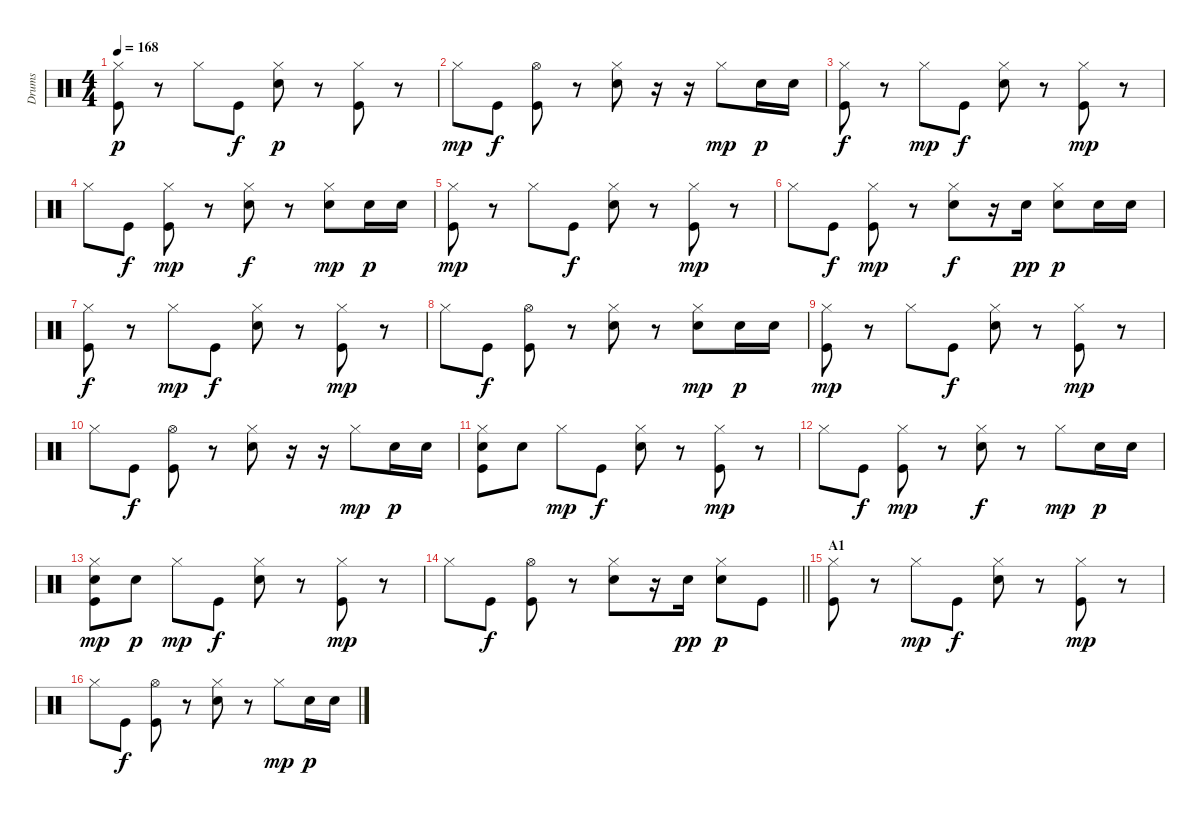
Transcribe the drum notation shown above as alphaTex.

\track ("Drums" "Drums") {instrument percussion}
\staff {score}
\articulation defaults
\ts (4 4)
\tempo 168
\clef neutral
\ks c
("Hi-Hat (closed)" "Kick (hit)").8{dy p} r.8 "Hi-Hat (closed)".8 "Kick (hit)".8{dy f} ("Hi-Hat (closed)" "Electric Snare (hit)").8{dy p} r.8 ("Hi-Hat (closed)" "Kick (hit)").8 r.8 |
"Hi-Hat (closed)".8{dy mp} "Kick (hit)".8{dy f} ("Hi-Hat (open)" "Kick (hit)").8 r.8 ("Hi-Hat (closed)" "Electric Snare (hit)").8 r.16 r.16 "Hi-Hat (closed)".8{dy mp} "Electric Snare (hit)".16{dy p} "Electric Snare (hit)".16 |
("Hi-Hat (closed)" "Kick (hit)").8{dy f} r.8 "Hi-Hat (closed)".8{dy mp} "Kick (hit)".8{dy f} ("Hi-Hat (closed)" "Electric Snare (hit)").8 r.8 ("Hi-Hat (closed)" "Kick (hit)").8{dy mp} r.8 |
"Hi-Hat (closed)".8 "Kick (hit)".8{dy f} ("Hi-Hat (closed)" "Kick (hit)").8{dy mp} r.8 ("Hi-Hat (closed)" "Electric Snare (hit)").8{dy f} r.8 ("Hi-Hat (closed)" "Electric Snare (hit)").8{dy mp} "Electric Snare (hit)".16{dy p} "Electric Snare (hit)".16 |
("Hi-Hat (closed)" "Kick (hit)").8{dy mp} r.8 "Hi-Hat (closed)".8 "Kick (hit)".8{dy f} ("Hi-Hat (closed)" "Electric Snare (hit)").8 r.8 ("Hi-Hat (closed)" "Kick (hit)").8{dy mp} r.8 |
"Hi-Hat (closed)".8 "Kick (hit)".8{dy f} ("Hi-Hat (closed)" "Kick (hit)").8{dy mp} r.8 ("Hi-Hat (closed)" "Electric Snare (hit)").8{dy f} r.16 "Electric Snare (hit)".16{dy pp} ("Hi-Hat (closed)" "Electric Snare (hit)").8{dy p} "Electric Snare (hit)".16 "Electric Snare (hit)".16 |
("Hi-Hat (closed)" "Kick (hit)").8{dy f} r.8 "Hi-Hat (closed)".8{dy mp} "Kick (hit)".8{dy f} ("Hi-Hat (closed)" "Electric Snare (hit)").8 r.8 ("Hi-Hat (closed)" "Kick (hit)").8{dy mp} r.8 |
"Hi-Hat (closed)".8 "Kick (hit)".8{dy f} ("Hi-Hat (open)" "Kick (hit)").8 r.8 ("Hi-Hat (closed)" "Electric Snare (hit)").8 r.8 ("Hi-Hat (closed)" "Electric Snare (hit)").8{dy mp} "Electric Snare (hit)".16{dy p} "Electric Snare (hit)".16 |
("Hi-Hat (closed)" "Kick (hit)").8{dy mp} r.8 "Hi-Hat (closed)".8 "Kick (hit)".8{dy f} ("Hi-Hat (closed)" "Electric Snare (hit)").8 r.8 ("Hi-Hat (closed)" "Kick (hit)").8{dy mp} r.8 |
"Hi-Hat (closed)".8 "Kick (hit)".8{dy f} ("Hi-Hat (open)" "Kick (hit)").8 r.8 ("Hi-Hat (closed)" "Electric Snare (hit)").8 r.16 r.16 "Hi-Hat (closed)".8{dy mp} "Electric Snare (hit)".16{dy p} "Electric Snare (hit)".16 |
("Electric Snare (hit)" "Hi-Hat (closed)" "Kick (hit)").8 "Electric Snare (hit)".8 "Hi-Hat (closed)".8{dy mp} "Kick (hit)".8{dy f} ("Hi-Hat (closed)" "Electric Snare (hit)").8 r.8 ("Hi-Hat (closed)" "Kick (hit)").8{dy mp} r.8 |
"Hi-Hat (closed)".8 "Kick (hit)".8{dy f} ("Hi-Hat (closed)" "Kick (hit)").8{dy mp} r.8 ("Hi-Hat (closed)" "Electric Snare (hit)").8{dy f} r.8 "Hi-Hat (closed)".8{dy mp} "Electric Snare (hit)".16{dy p} "Electric Snare (hit)".16 |
("Electric Snare (hit)" "Hi-Hat (closed)" "Kick (hit)").8{dy mp} "Electric Snare (hit)".8{dy p} "Hi-Hat (closed)".8{dy mp} "Kick (hit)".8{dy f} ("Hi-Hat (closed)" "Electric Snare (hit)").8 r.8 ("Hi-Hat (closed)" "Kick (hit)").8{dy mp} r.8 |
\barLineRight lightlight "Hi-Hat (closed)".8 "Kick (hit)".8{dy f}
("Hi-Hat (open)" "Kick (hit)").8 r.8 ("Hi-Hat (closed)" "Electric Snare (hit)").8 r.16 "Electric Snare (hit)".16{dy pp} ("Hi-Hat (closed)" "Electric Snare (hit)").8{dy p} "Kick (hit)".8 |
\section ("" "A1")
("Hi-Hat (closed)" "Kick (hit)").8 r.8 "Hi-Hat (closed)".8{dy mp} "Kick (hit)".8{dy f} ("Hi-Hat (closed)" "Electric Snare (hit)").8 r.8 ("Hi-Hat (closed)" "Kick (hit)").8{dy mp} r.8 |
"Hi-Hat (closed)".8 "Kick (hit)".8{dy f} ("Hi-Hat (open)" "Kick (hit)").8 r.8 ("Hi-Hat (closed)" "Electric Snare (hit)").8 r.8 "Hi-Hat (closed)".8{dy mp} "Electric Snare (hit)".16{dy p} "Electric Snare (hit)".16
